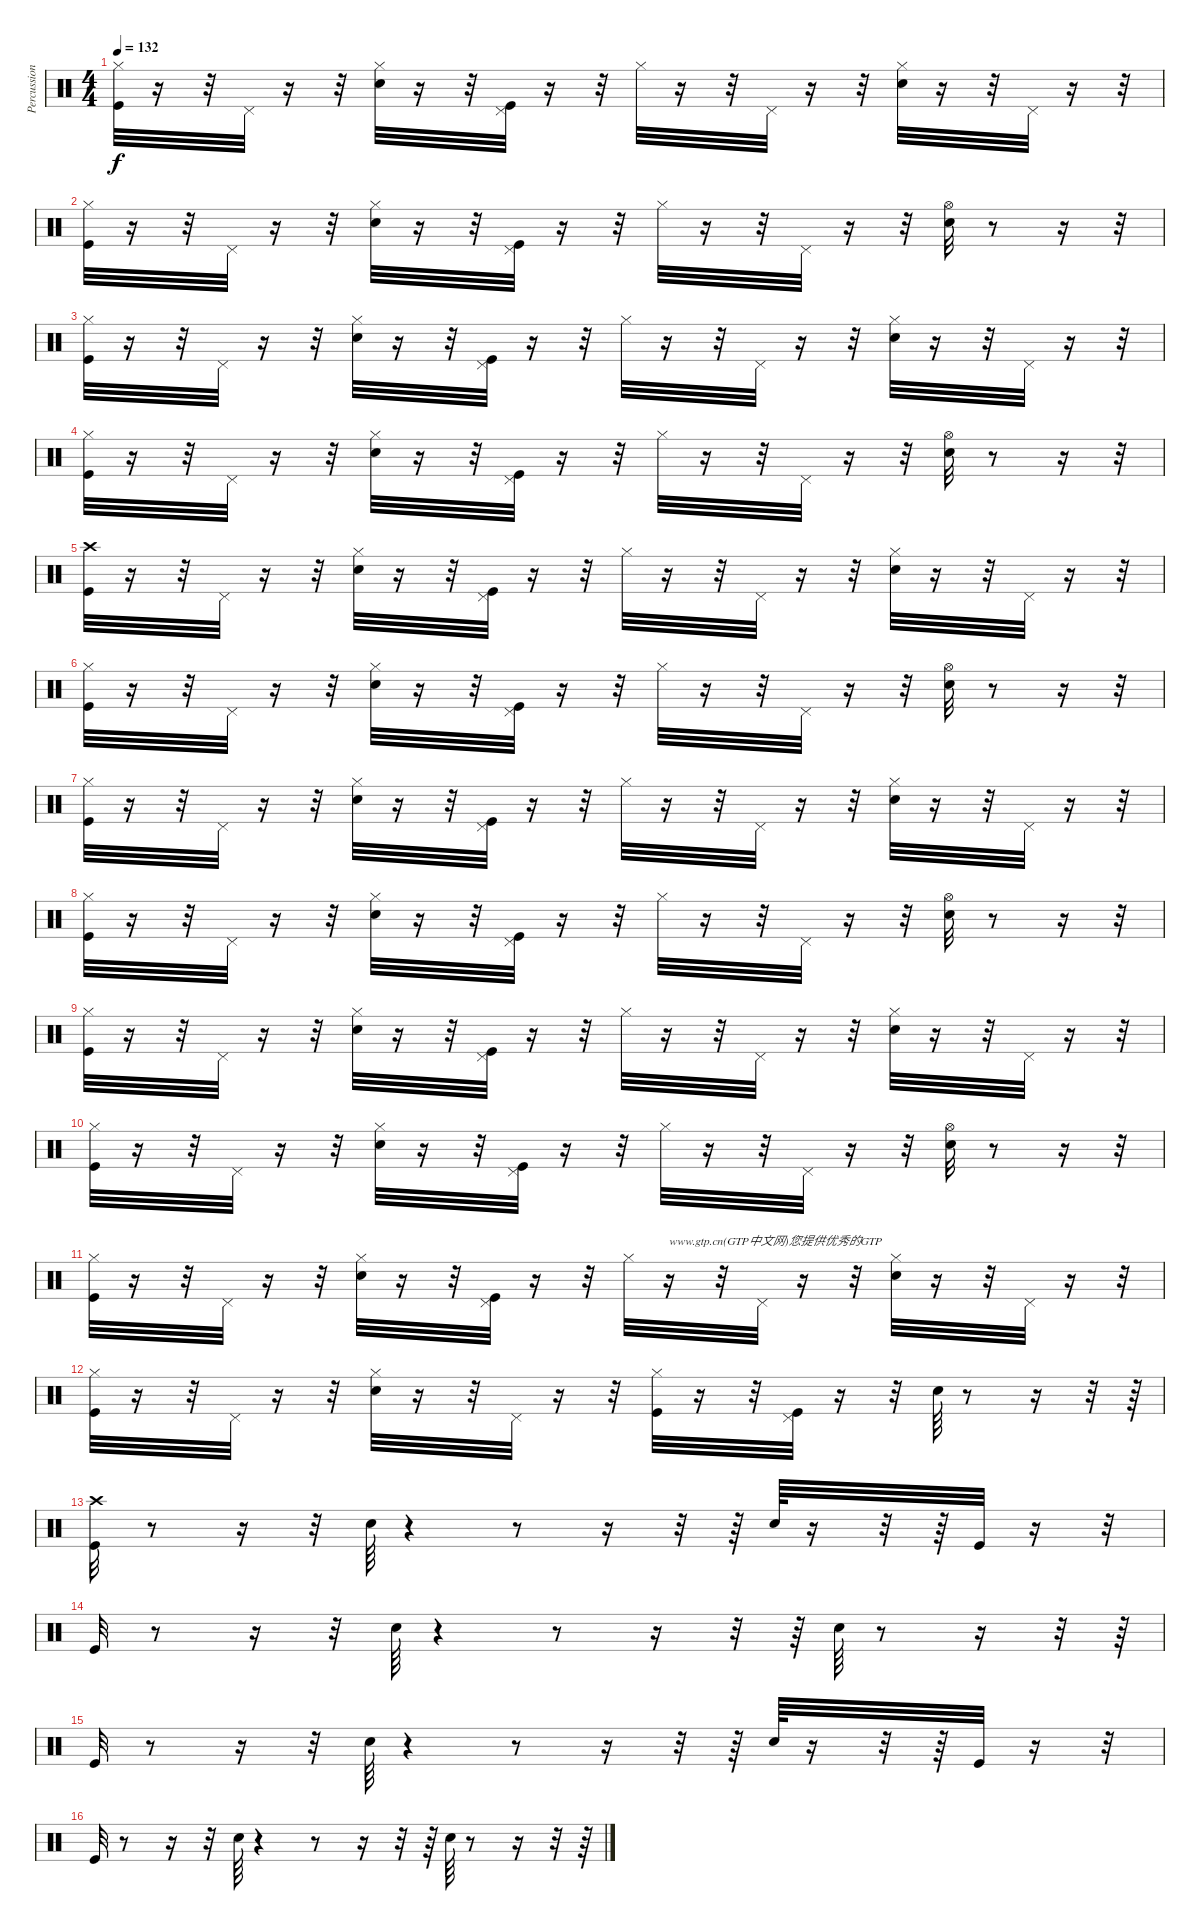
\track ("Percussions" "Percussion") {instrument percussion}
\staff {score}
\articulation defaults
\ts (4 4)
\tempo 132
\clef neutral
\ks c
("Hi-Hat (closed)" "Kick (hit)").32{dy f} r.16 r.32 "Pedal Hi-Hat (hit)".32 r.16 r.32 ("Hi-Hat (closed)" "Electric Snare (hit)").32 r.16 r.32 ("Pedal Hi-Hat (hit)" "Kick (hit)").32 r.16 r.32 "Hi-Hat (closed)".32 r.16 r.32 "Pedal Hi-Hat (hit)".32 r.16 r.32 ("Hi-Hat (closed)" "Electric Snare (hit)").32 r.16 r.32 "Pedal Hi-Hat (hit)".32 r.16 r.32 |
("Hi-Hat (closed)" "Kick (hit)").32 r.16 r.32 "Pedal Hi-Hat (hit)".32 r.16 r.32 ("Hi-Hat (closed)" "Electric Snare (hit)").32 r.16 r.32 ("Pedal Hi-Hat (hit)" "Kick (hit)").32 r.16 r.32 "Hi-Hat (closed)".32 r.16 r.32 "Pedal Hi-Hat (hit)".32 r.16 r.32 ("Hi-Hat (open)" "Electric Snare (hit)").32 r.8 r.16 r.32 |
("Hi-Hat (closed)" "Kick (hit)").32 r.16 r.32 "Pedal Hi-Hat (hit)".32 r.16 r.32 ("Hi-Hat (closed)" "Electric Snare (hit)").32 r.16 r.32 ("Pedal Hi-Hat (hit)" "Kick (hit)").32 r.16 r.32 "Hi-Hat (closed)".32 r.16 r.32 "Pedal Hi-Hat (hit)".32 r.16 r.32 ("Hi-Hat (closed)" "Electric Snare (hit)").32 r.16 r.32 "Pedal Hi-Hat (hit)".32 r.16 r.32 |
("Hi-Hat (closed)" "Kick (hit)").32 r.16 r.32 "Pedal Hi-Hat (hit)".32 r.16 r.32 ("Hi-Hat (closed)" "Electric Snare (hit)").32 r.16 r.32 ("Pedal Hi-Hat (hit)" "Kick (hit)").32 r.16 r.32 "Hi-Hat (closed)".32 r.16 r.32 "Pedal Hi-Hat (hit)".32 r.16 r.32 ("Hi-Hat (open)" "Electric Snare (hit)").32 r.8 r.16 r.32 |
("Crash high (hit)" "Kick (hit)").32 r.16 r.32 "Pedal Hi-Hat (hit)".32 r.16 r.32 ("Hi-Hat (closed)" "Electric Snare (hit)").32 r.16 r.32 ("Pedal Hi-Hat (hit)" "Kick (hit)").32 r.16 r.32 "Hi-Hat (closed)".32 r.16 r.32 "Pedal Hi-Hat (hit)".32 r.16 r.32 ("Hi-Hat (closed)" "Electric Snare (hit)").32 r.16 r.32 "Pedal Hi-Hat (hit)".32 r.16 r.32 |
("Hi-Hat (closed)" "Kick (hit)").32 r.16 r.32 "Pedal Hi-Hat (hit)".32 r.16 r.32 ("Hi-Hat (closed)" "Electric Snare (hit)").32 r.16 r.32 ("Pedal Hi-Hat (hit)" "Kick (hit)").32 r.16 r.32 "Hi-Hat (closed)".32 r.16 r.32 "Pedal Hi-Hat (hit)".32 r.16 r.32 ("Hi-Hat (open)" "Electric Snare (hit)").32 r.8 r.16 r.32 |
("Hi-Hat (closed)" "Kick (hit)").32 r.16 r.32 "Pedal Hi-Hat (hit)".32 r.16 r.32 ("Hi-Hat (closed)" "Electric Snare (hit)").32 r.16 r.32 ("Pedal Hi-Hat (hit)" "Kick (hit)").32 r.16 r.32 "Hi-Hat (closed)".32 r.16 r.32 "Pedal Hi-Hat (hit)".32 r.16 r.32 ("Hi-Hat (closed)" "Electric Snare (hit)").32 r.16 r.32 "Pedal Hi-Hat (hit)".32 r.16 r.32 |
("Hi-Hat (closed)" "Kick (hit)").32 r.16 r.32 "Pedal Hi-Hat (hit)".32 r.16 r.32 ("Hi-Hat (closed)" "Electric Snare (hit)").32 r.16 r.32 ("Pedal Hi-Hat (hit)" "Kick (hit)").32 r.16 r.32 "Hi-Hat (closed)".32 r.16 r.32 "Pedal Hi-Hat (hit)".32 r.16 r.32 ("Hi-Hat (open)" "Electric Snare (hit)").32 r.8 r.16 r.32 |
("Hi-Hat (closed)" "Kick (hit)").32 r.16 r.32 "Pedal Hi-Hat (hit)".32 r.16 r.32 ("Hi-Hat (closed)" "Electric Snare (hit)").32 r.16 r.32 ("Pedal Hi-Hat (hit)" "Kick (hit)").32 r.16 r.32 "Hi-Hat (closed)".32 r.16 r.32 "Pedal Hi-Hat (hit)".32 r.16 r.32 ("Hi-Hat (closed)" "Electric Snare (hit)").32 r.16 r.32 "Pedal Hi-Hat (hit)".32 r.16 r.32 |
("Hi-Hat (closed)" "Kick (hit)").32 r.16 r.32 "Pedal Hi-Hat (hit)".32 r.16 r.32 ("Hi-Hat (closed)" "Electric Snare (hit)").32 r.16 r.32 ("Pedal Hi-Hat (hit)" "Kick (hit)").32 r.16 r.32 "Hi-Hat (closed)".32 r.16 r.32 "Pedal Hi-Hat (hit)".32 r.16 r.32 ("Hi-Hat (open)" "Electric Snare (hit)").32 r.8 r.16 r.32 |
("Hi-Hat (closed)" "Kick (hit)").32 r.16 r.32 "Pedal Hi-Hat (hit)".32 r.16 r.32 ("Hi-Hat (closed)" "Electric Snare (hit)").32 r.16 r.32 ("Pedal Hi-Hat (hit)" "Kick (hit)").32 r.16 r.32 "Hi-Hat (closed)".32 r.16{txt "www.gtp.cn(GTP中文网)您提供优秀的GTP"} r.32 "Pedal Hi-Hat (hit)".32 r.16 r.32 ("Hi-Hat (closed)" "Electric Snare (hit)").32 r.16 r.32 "Pedal Hi-Hat (hit)".32 r.16 r.32 |
("Hi-Hat (closed)" "Kick (hit)").32 r.16 r.32 "Pedal Hi-Hat (hit)".32 r.16 r.32 ("Hi-Hat (closed)" "Electric Snare (hit)").32 r.16 r.32 "Pedal Hi-Hat (hit)".32 r.16 r.32 ("Kick (hit)" "Hi-Hat (closed)").32 r.16 r.32 ("Kick (hit)" "Pedal Hi-Hat (hit)").32 r.16 r.32 "Electric Snare (hit)".64 r.8 r.16 r.32 r.64 |
("Crash high (hit)" "Kick (hit)").32 r.8 r.16 r.32 "Electric Snare (hit)".64 r.4 r.8 r.16 r.32 r.64 "Electric Snare (hit)".64 r.16 r.32 r.64 "Kick (hit)".32 r.16 r.32 |
"Kick (hit)".32 r.8 r.16 r.32 "Electric Snare (hit)".64 r.4 r.8 r.16 r.32 r.64 "Electric Snare (hit)".64 r.8 r.16 r.32 r.64 |
"Kick (hit)".32 r.8 r.16 r.32 "Electric Snare (hit)".64 r.4 r.8 r.16 r.32 r.64 "Electric Snare (hit)".64 r.16 r.32 r.64 "Kick (hit)".32 r.16 r.32 |
"Kick (hit)".32 r.8 r.16 r.32 "Electric Snare (hit)".64 r.4 r.8 r.16 r.32 r.64 "Electric Snare (hit)".64 r.8 r.16 r.32 r.64
